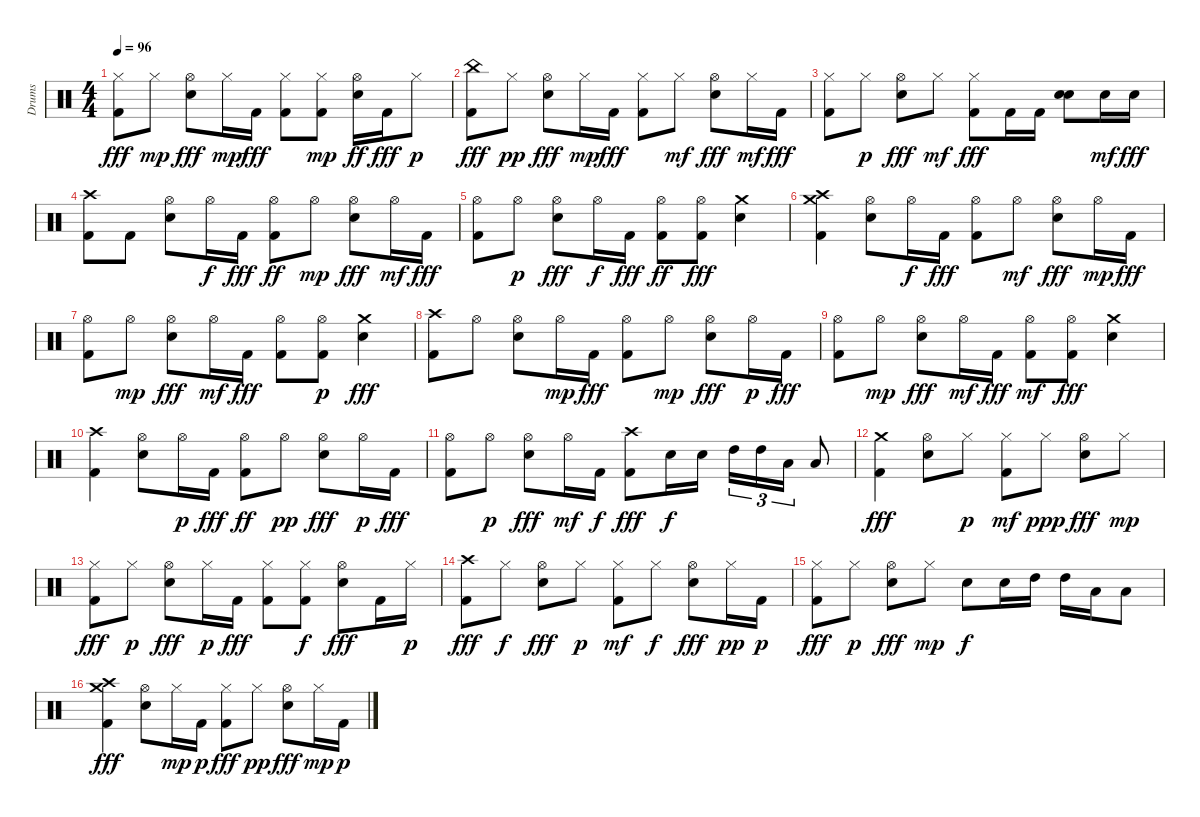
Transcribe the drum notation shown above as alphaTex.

\track ("Drums" "Drums") {instrument percussion}
\staff {score}
\articulation defaults
\ts (4 4)
\tempo 96
\clef neutral
\ks c
("Hi-Hat (closed)" "Kick (hit) 2").8{dy fff} "Hi-Hat (closed)".8{dy mp} ("Snare (hit) 2" "Hi-Hat (open)").8{dy fff} "Hi-Hat (closed)".16{dy mp} "Kick (hit) 2".16{dy fff} ("Hi-Hat (closed)" "Kick (hit) 2").8 ("Kick (hit) 2" "Hi-Hat (closed)").8{dy mp} ("Snare (hit) 2" "Hi-Hat (open)").16{dy ff} "Kick (hit) 2".16{dy fff} "Hi-Hat (closed)".8{dy p} |
("China (hit)" "Kick (hit) 2").8{dy fff} "Hi-Hat (closed)".8{dy pp} ("Hi-Hat (open)" "Snare (hit) 2").8{dy fff} "Hi-Hat (closed)".16{dy mp} "Kick (hit) 2".16{dy fff} ("Hi-Hat (closed)" "Kick (hit) 2").8 "Hi-Hat (closed)".8{dy mf} ("Hi-Hat (open)" "Snare (hit) 2").8{dy fff} "Hi-Hat (closed)".16{dy mf} "Kick (hit) 2".16{dy fff} |
("Hi-Hat (closed)" "Kick (hit) 2").8 "Hi-Hat (closed)".8{dy p} ("Hi-Hat (open)" "Snare (hit) 2").8{dy fff} "Hi-Hat (closed)".8{dy mf} ("Hi-Hat (closed)" "Kick (hit) 2").8{dy fff} "Kick (hit) 2".16 "Kick (hit) 2".16 ("Snare (hit) 2" "Snare (hit) 2").8 "Snare (hit) 2".16{dy mf} "Snare (hit) 2".16{dy fff} |
("Kick (hit) 2" "Crash high (hit)").8 "Kick (hit) 2".8 ("Snare (hit) 2" "Hi-Hat (open)").8 "Hi-Hat (open)".16{dy f} "Kick (hit) 2".16{dy fff} ("Kick (hit) 2" "Hi-Hat (open)").8{dy ff} "Hi-Hat (open)".8{dy mp} ("Hi-Hat (open)" "Snare (hit) 2").8{dy fff} "Hi-Hat (open)".16{dy mf} "Kick (hit) 2".16{dy fff} |
("Kick (hit) 2" "Hi-Hat (open)").8 "Hi-Hat (open)".8{dy p} ("Snare (hit) 2" "Hi-Hat (open)").8{dy fff} "Hi-Hat (open)".16{dy f} "Kick (hit) 2".16{dy fff} ("Kick (hit) 2" "Hi-Hat (open)").8{dy ff} ("Hi-Hat (open)" "Kick (hit) 2").8{dy fff} ("Snare (hit) 2" "Crash medium (hit)").4 |
("Crash medium (hit)" "Crash high (hit)" "Kick (hit) 2").4 ("Snare (hit) 2" "Hi-Hat (open)").8 "Hi-Hat (open)".16{dy f} "Kick (hit) 2".16{dy fff} ("Kick (hit) 2" "Hi-Hat (open)").8 "Hi-Hat (open)".8{dy mf} ("Snare (hit) 2" "Hi-Hat (open)").8{dy fff} "Hi-Hat (open)".16{dy mp} "Kick (hit) 2".16{dy fff} |
("Hi-Hat (open)" "Kick (hit) 2").8 "Hi-Hat (open)".8{dy mp} ("Hi-Hat (open)" "Snare (hit) 2").8{dy fff} "Hi-Hat (open)".16{dy mf} "Kick (hit) 2".16{dy fff} ("Hi-Hat (open)" "Kick (hit) 2").8 ("Kick (hit) 2" "Hi-Hat (open)").8{dy p} ("Snare (hit) 2" "Crash medium (hit)").4{dy fff} |
("Kick (hit) 2" "Crash high (hit)").8 "Hi-Hat (open)".8 ("Hi-Hat (open)" "Snare (hit) 2").8 "Hi-Hat (open)".16{dy mp} "Kick (hit) 2".16{dy fff} ("Kick (hit) 2" "Hi-Hat (open)").8 "Hi-Hat (open)".8{dy mp} ("Hi-Hat (open)" "Snare (hit) 2").8{dy fff} "Hi-Hat (open)".16{dy p} "Kick (hit) 2".16{dy fff} |
("Hi-Hat (open)" "Kick (hit) 2").8 "Hi-Hat (open)".8{dy mp} ("Snare (hit) 2" "Hi-Hat (open)").8{dy fff} "Hi-Hat (open)".16{dy mf} "Kick (hit) 2".16{dy fff} ("Kick (hit) 2" "Hi-Hat (open)").8{dy mf} ("Hi-Hat (open)" "Kick (hit) 2").8{dy fff} ("Snare (hit) 2" "Crash medium (hit)").4 |
("Kick (hit) 2" "Crash high (hit)").4 ("Snare (hit) 2" "Hi-Hat (open)").8 "Hi-Hat (open)".16{dy p} "Kick (hit) 2".16{dy fff} ("Kick (hit) 2" "Hi-Hat (open)").8{dy ff} "Hi-Hat (open)".8{dy pp} ("Snare (hit) 2" "Hi-Hat (open)").8{dy fff} "Hi-Hat (open)".16{dy p} "Kick (hit) 2".16{dy fff} |
("Hi-Hat (open)" "Kick (hit) 2").8 "Hi-Hat (open)".8{dy p} ("Hi-Hat (open)" "Snare (hit) 2").8{dy fff} "Hi-Hat (open)".16{dy mf} "Kick (hit) 2".16{dy f} ("Crash high (hit)" "Kick (hit) 2").8{dy fff} "Snare (hit) 2".16{dy f} "Snare (hit) 2".16 "High Tom (hit)".16{tu (3 2)} "High Tom (hit)".16{tu (3 2)} "Low Tom (hit)".16{tu (3 2)} "Low Tom (hit)".8 |
("Crash medium (hit)" "Kick (hit) 2").4{dy fff} ("Snare (hit) 2" "Hi-Hat (open)").8 "Hi-Hat (closed)".8{dy p} ("Kick (hit) 2" "Hi-Hat (closed)").8{dy mf} "Hi-Hat (closed)".8{dy ppp} ("Snare (hit) 2" "Hi-Hat (open)").8{dy fff} "Hi-Hat (closed)".8{dy mp} |
("Hi-Hat (closed)" "Kick (hit) 2").8{dy fff} "Hi-Hat (closed)".8{dy p} ("Hi-Hat (open)" "Snare (hit) 2").8{dy fff} "Hi-Hat (closed)".16{dy p} "Kick (hit) 2".16{dy fff} ("Hi-Hat (closed)" "Kick (hit) 2").8 ("Kick (hit) 2" "Hi-Hat (closed)").8{dy f} ("Hi-Hat (open)" "Snare (hit) 2").8{dy fff} "Kick (hit) 2".16 "Hi-Hat (closed)".16{dy p} |
("Crash high (hit)" "Kick (hit) 2").8{dy fff} "Hi-Hat (closed)".8{dy f} ("Hi-Hat (open)" "Snare (hit) 2").8{dy fff} "Hi-Hat (closed)".8{dy p} ("Kick (hit) 2" "Hi-Hat (closed)").8{dy mf} "Hi-Hat (closed)".8{dy f} ("Snare (hit) 2" "Hi-Hat (open)").8{dy fff} "Hi-Hat (closed)".16{dy pp} "Kick (hit) 2".16{dy p} |
("Hi-Hat (closed)" "Kick (hit) 2").8{dy fff} "Hi-Hat (closed)".8{dy p} ("Hi-Hat (open)" "Snare (hit) 2").8{dy fff} "Hi-Hat (closed)".8{dy mp} "Snare (hit) 2".8{dy f} "Snare (hit) 2".16 "High Tom (hit)".16 "High Tom (hit)".16 "Low Tom (hit)".16 "Low Tom (hit)".8 |
("Crash high (hit)" "Crash medium (hit)" "Kick (hit) 2").4{dy fff} ("Snare (hit) 2" "Hi-Hat (open)").8 "Hi-Hat (closed)".16{dy mp} "Kick (hit) 2".16{dy p} ("Hi-Hat (closed)" "Kick (hit) 2").8{dy fff} "Hi-Hat (closed)".8{dy pp} ("Snare (hit) 2" "Hi-Hat (open)").8{dy fff} "Hi-Hat (closed)".16{dy mp} "Kick (hit) 2".16{dy p}
